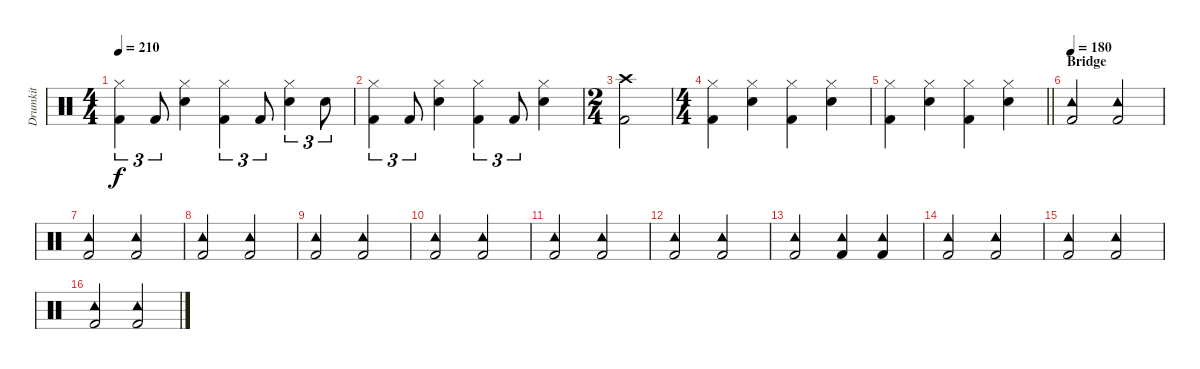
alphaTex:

\track ("Drumkit" "Drumkit") {instrument percussion}
\staff {score}
\articulation defaults
\ts (4 4)
\tempo 210
\clef neutral
\ks c
("Hi-Hat (closed)" "Kick (hit) 2").4{tu (3 2) dy f} "Kick (hit) 2".8{tu (3 2)} ("Hi-Hat (closed)" "Electric Snare (hit)").4 ("Hi-Hat (closed)" "Kick (hit) 2").4{tu (3 2)} "Kick (hit) 2".8{tu (3 2)} ("Hi-Hat (closed)" "Electric Snare (hit)").4{tu (3 2)} "Electric Snare (hit)".8{tu (3 2)} |
("Hi-Hat (closed)" "Kick (hit) 2").4{tu (3 2)} "Kick (hit) 2".8{tu (3 2)} ("Hi-Hat (closed)" "Electric Snare (hit)").4 ("Hi-Hat (closed)" "Kick (hit) 2").4{tu (3 2)} "Kick (hit) 2".8{tu (3 2)} ("Hi-Hat (closed)" "Electric Snare (hit)").4 |
\ts (2 4)
("Crash high (hit)" "Kick (hit) 2").2 |
\ts (4 4)
("Hi-Hat (closed)" "Kick (hit) 2").4 ("Hi-Hat (closed)" "Electric Snare (hit)").4 ("Hi-Hat (closed)" "Kick (hit) 2").4 ("Hi-Hat (closed)" "Electric Snare (hit)").4 |
\barLineRight lightlight
("Hi-Hat (closed)" "Kick (hit) 2").4 ("Hi-Hat (closed)" "Electric Snare (hit)").4 ("Hi-Hat (closed)" "Kick (hit) 2").4 ("Hi-Hat (closed)" "Electric Snare (hit)").4 |
\section ("" "Bridge")
\tempo 180
("Tambourine (hit)" "Kick (hit) 2").2 ("Tambourine (hit)" "Kick (hit) 2").2 |
("Tambourine (hit)" "Kick (hit) 2").2 ("Tambourine (hit)" "Kick (hit) 2").2 |
("Tambourine (hit)" "Kick (hit) 2").2 ("Tambourine (hit)" "Kick (hit) 2").2 |
("Tambourine (hit)" "Kick (hit) 2").2 ("Tambourine (hit)" "Kick (hit) 2").2 |
("Tambourine (hit)" "Kick (hit) 2").2 ("Tambourine (hit)" "Kick (hit) 2").2 |
("Tambourine (hit)" "Kick (hit) 2").2 ("Tambourine (hit)" "Kick (hit) 2").2 |
("Tambourine (hit)" "Kick (hit) 2").2 ("Tambourine (hit)" "Kick (hit) 2").2 |
("Tambourine (hit)" "Kick (hit) 2").2 ("Tambourine (hit)" "Kick (hit) 2").4 ("Tambourine (hit)" "Kick (hit) 2").4 |
("Tambourine (hit)" "Kick (hit) 2").2 ("Tambourine (hit)" "Kick (hit) 2").2 |
("Tambourine (hit)" "Kick (hit) 2").2 ("Tambourine (hit)" "Kick (hit) 2").2 |
("Tambourine (hit)" "Kick (hit) 2").2 ("Tambourine (hit)" "Kick (hit) 2").2
